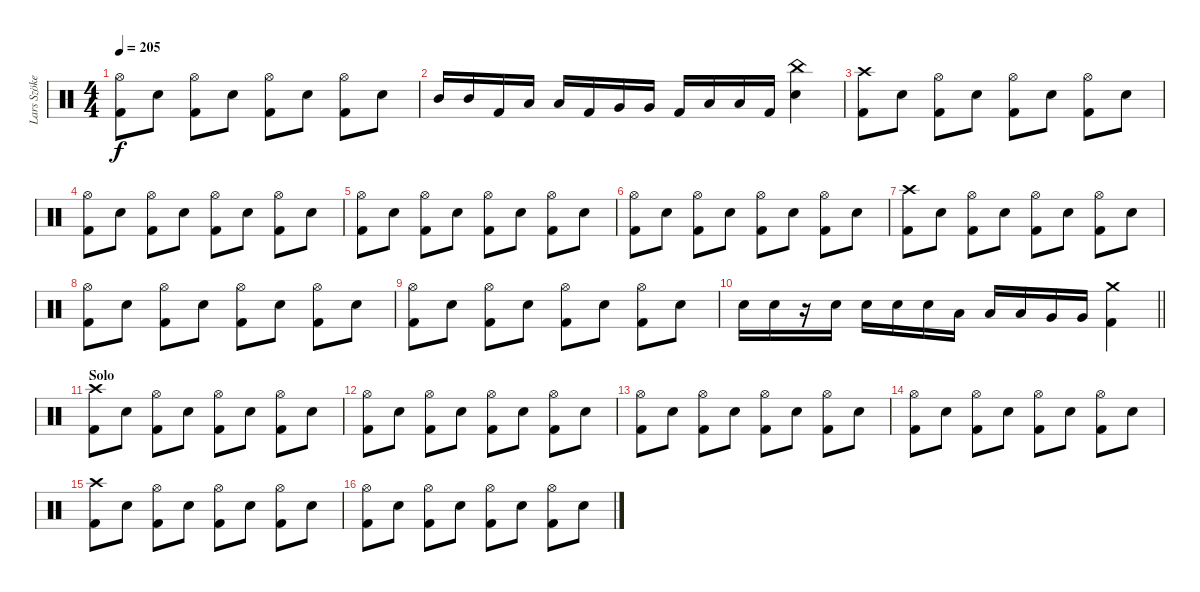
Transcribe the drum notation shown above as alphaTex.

\track ("Lars Szöke" "Lars Szöke") {instrument percussion}
\staff {score}
\articulation defaults
\ts (4 4)
\tempo 205
\clef neutral
\ks c
("Hi-Hat (open)" "Kick (hit) 2").8{dy f} "Snare (hit) 2".8 ("Hi-Hat (open)" "Kick (hit) 2").8 "Snare (hit) 2".8 ("Hi-Hat (open)" "Kick (hit) 2").8 "Snare (hit) 2".8 ("Hi-Hat (open)" "Kick (hit) 2").8 "Snare (hit) 2".8 |
"Mid Tom (hit)".16 "Mid Tom (hit)".16 "Kick (hit) 2".16 "Low Tom (hit)".16 "Low Tom (hit)".16 "Kick (hit) 2".16 "Very Low Tom (hit)".16 "Very Low Tom (hit)".16 "Kick (hit) 2".16 "Low Floor Tom (hit)".16 "Low Floor Tom (hit)".16 "Kick (hit) 2".16 ("China (hit)" "Snare (hit) 2").4 |
("Crash high (hit)" "Kick (hit) 2").8 "Snare (hit) 2".8 ("Hi-Hat (open)" "Kick (hit) 2").8 "Snare (hit) 2".8 ("Hi-Hat (open)" "Kick (hit) 2").8 "Snare (hit) 2".8 ("Hi-Hat (open)" "Kick (hit) 2").8 "Snare (hit) 2".8 |
("Hi-Hat (open)" "Kick (hit) 2").8 "Snare (hit) 2".8 ("Hi-Hat (open)" "Kick (hit) 2").8 "Snare (hit) 2".8 ("Hi-Hat (open)" "Kick (hit) 2").8 "Snare (hit) 2".8 ("Hi-Hat (open)" "Kick (hit) 2").8 "Snare (hit) 2".8 |
("Hi-Hat (open)" "Kick (hit) 2").8 "Snare (hit) 2".8 ("Hi-Hat (open)" "Kick (hit) 2").8 "Snare (hit) 2".8 ("Hi-Hat (open)" "Kick (hit) 2").8 "Snare (hit) 2".8 ("Hi-Hat (open)" "Kick (hit) 2").8 "Snare (hit) 2".8 |
("Hi-Hat (open)" "Kick (hit) 2").8 "Snare (hit) 2".8 ("Hi-Hat (open)" "Kick (hit) 2").8 "Snare (hit) 2".8 ("Hi-Hat (open)" "Kick (hit) 2").8 "Snare (hit) 2".8 ("Hi-Hat (open)" "Kick (hit) 2").8 "Snare (hit) 2".8 |
("Crash high (hit)" "Kick (hit) 2").8 "Snare (hit) 2".8 ("Hi-Hat (open)" "Kick (hit) 2").8 "Snare (hit) 2".8 ("Hi-Hat (open)" "Kick (hit) 2").8 "Snare (hit) 2".8 ("Hi-Hat (open)" "Kick (hit) 2").8 "Snare (hit) 2".8 |
("Hi-Hat (open)" "Kick (hit) 2").8 "Snare (hit) 2".8 ("Hi-Hat (open)" "Kick (hit) 2").8 "Snare (hit) 2".8 ("Hi-Hat (open)" "Kick (hit) 2").8 "Snare (hit) 2".8 ("Hi-Hat (open)" "Kick (hit) 2").8 "Snare (hit) 2".8 |
("Hi-Hat (open)" "Kick (hit) 2").8 "Snare (hit) 2".8 ("Hi-Hat (open)" "Kick (hit) 2").8 "Snare (hit) 2".8 ("Hi-Hat (open)" "Kick (hit) 2").8 "Snare (hit) 2".8 ("Hi-Hat (open)" "Kick (hit) 2").8 "Snare (hit) 2".8 |
\barLineRight lightlight "Snare (hit) 2".16 "Snare (hit) 2".16
r.16 "Snare (hit) 2".16 "Snare (hit) 2".16 "Snare (hit) 2".16 "Snare (hit) 2".16 "Low Tom (hit)".16 "Low Tom (hit)".16 "Low Tom (hit)".16 "Very Low Tom (hit)".16 "Very Low Tom (hit)".16 ("Crash medium (hit)" "Kick (hit) 2").4 |
\section ("" "Solo")
("Crash high (hit)" "Kick (hit) 2").8 "Snare (hit) 2".8 ("Hi-Hat (open)" "Kick (hit) 2").8 "Snare (hit) 2".8 ("Hi-Hat (open)" "Kick (hit) 2").8 "Snare (hit) 2".8 ("Hi-Hat (open)" "Kick (hit) 2").8 "Snare (hit) 2".8 |
("Hi-Hat (open)" "Kick (hit) 2").8 "Snare (hit) 2".8 ("Hi-Hat (open)" "Kick (hit) 2").8 "Snare (hit) 2".8 ("Hi-Hat (open)" "Kick (hit) 2").8 "Snare (hit) 2".8 ("Hi-Hat (open)" "Kick (hit) 2").8 "Snare (hit) 2".8 |
("Hi-Hat (open)" "Kick (hit) 2").8 "Snare (hit) 2".8 ("Hi-Hat (open)" "Kick (hit) 2").8 "Snare (hit) 2".8 ("Hi-Hat (open)" "Kick (hit) 2").8 "Snare (hit) 2".8 ("Hi-Hat (open)" "Kick (hit) 2").8 "Snare (hit) 2".8 |
("Hi-Hat (open)" "Kick (hit) 2").8 "Snare (hit) 2".8 ("Hi-Hat (open)" "Kick (hit) 2").8 "Snare (hit) 2".8 ("Hi-Hat (open)" "Kick (hit) 2").8 "Snare (hit) 2".8 ("Hi-Hat (open)" "Kick (hit) 2").8 "Snare (hit) 2".8 |
("Crash high (hit)" "Kick (hit) 2").8 "Snare (hit) 2".8 ("Hi-Hat (open)" "Kick (hit) 2").8 "Snare (hit) 2".8 ("Hi-Hat (open)" "Kick (hit) 2").8 "Snare (hit) 2".8 ("Hi-Hat (open)" "Kick (hit) 2").8 "Snare (hit) 2".8 |
("Hi-Hat (open)" "Kick (hit) 2").8 "Snare (hit) 2".8 ("Hi-Hat (open)" "Kick (hit) 2").8 "Snare (hit) 2".8 ("Hi-Hat (open)" "Kick (hit) 2").8 "Snare (hit) 2".8 ("Hi-Hat (open)" "Kick (hit) 2").8 "Snare (hit) 2".8
